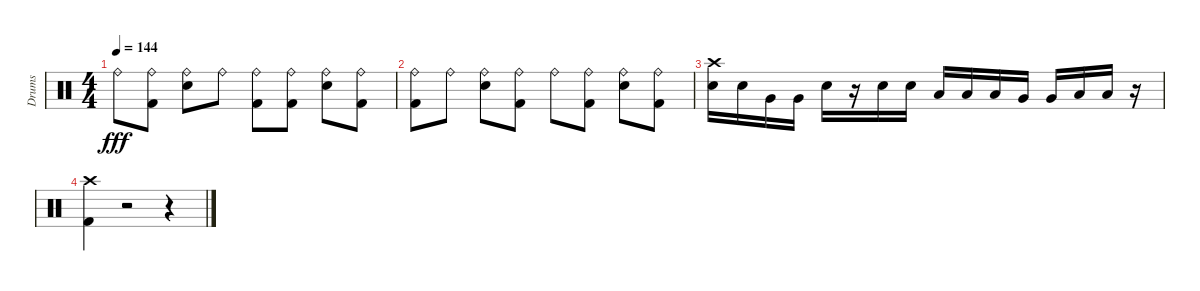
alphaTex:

\track ("Drums" "Drums") {instrument percussion}
\staff {score}
\articulation defaults
\ts (4 4)
\tempo 144
\clef neutral
\ks c "Ride (bell)".8{dy fff}
("Ride (bell)" "Kick (hit) 2").8 ("Ride (bell)" "Snare (hit) 2").8 "Ride (bell)".8 ("Ride (bell)" "Kick (hit) 2").8 ("Ride (bell)" "Kick (hit) 2").8 ("Ride (bell)" "Snare (hit) 2").8 ("Ride (bell)" "Kick (hit) 2").8 |
("Kick (hit) 2" "Ride (bell)").8 "Ride (bell)".8 ("Snare (hit) 2" "Ride (bell)").8 ("Kick (hit) 2" "Ride (bell)").8 "Ride (bell)".8 ("Kick (hit) 2" "Ride (bell)").8 ("Snare (hit) 2" "Ride (bell)").8 ("Kick (hit) 2" "Ride (bell)").8 |
("Snare (hit) 2" "Crash high (hit)").16 "Snare (hit) 2".16 "Very Low Tom (hit)".16 "Very Low Tom (hit)".16 "Snare (hit) 2".16 r.16 "Snare (hit) 2".16 "Snare (hit) 2".16 "Low Tom (hit)".16 "Low Tom (hit)".16 "Low Tom (hit)".16 "Very Low Tom (hit)".16 "Very Low Tom (hit)".16 "Low Floor Tom (hit)".16 "Low Floor Tom (hit)".16 r.16 |
("Kick (hit) 2" "Crash high (hit)").4 r.2 r.4
